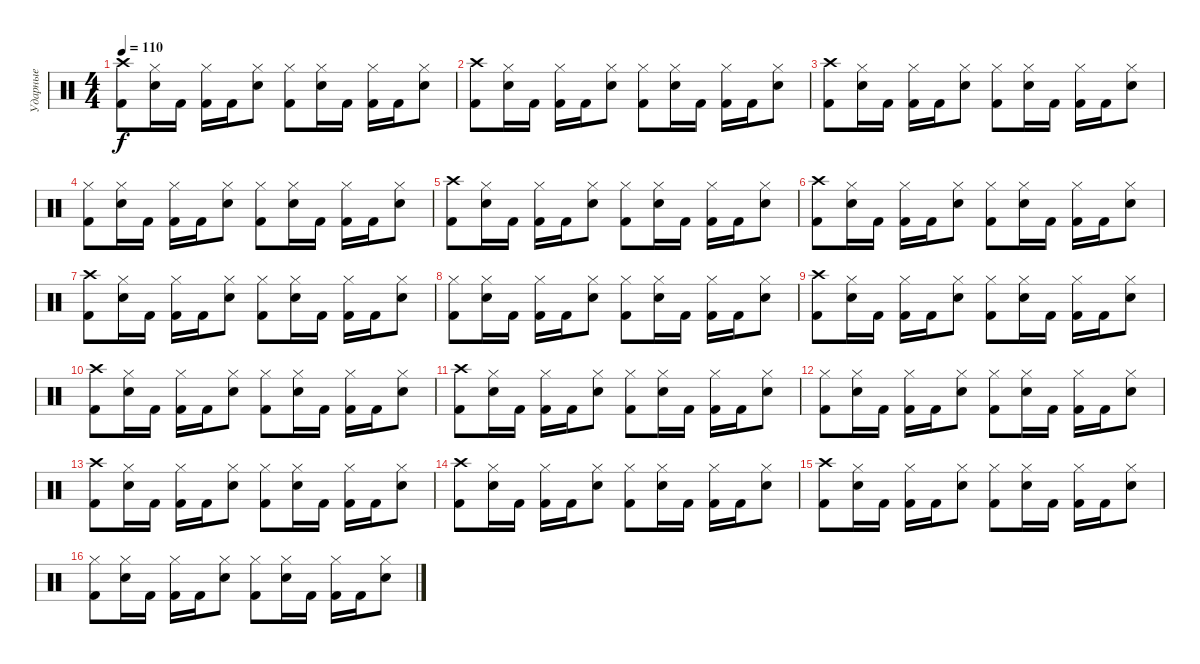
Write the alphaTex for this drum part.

\track ("Ударные" "Ударные") {instrument percussion}
\staff {score}
\articulation defaults
\ts (4 4)
\tempo 110
\clef neutral
\ks c
("Crash high (hit)" "Kick (hit) 2").8{dy f} ("Hi-Hat (closed)" "Electric Snare (hit)").16 "Kick (hit) 2".16 ("Hi-Hat (closed)" "Kick (hit) 2").16 "Kick (hit) 2".16 ("Hi-Hat (closed)" "Electric Snare (hit)").8 ("Hi-Hat (closed)" "Kick (hit) 2").8 ("Hi-Hat (closed)" "Electric Snare (hit)").16 "Kick (hit) 2".16 ("Hi-Hat (closed)" "Kick (hit) 2").16 "Kick (hit) 2".16 ("Hi-Hat (closed)" "Electric Snare (hit)").8 |
("Crash high (hit)" "Kick (hit) 2").8 ("Hi-Hat (closed)" "Electric Snare (hit)").16 "Kick (hit) 2".16 ("Hi-Hat (closed)" "Kick (hit) 2").16 "Kick (hit) 2".16 ("Hi-Hat (closed)" "Electric Snare (hit)").8 ("Hi-Hat (closed)" "Kick (hit) 2").8 ("Hi-Hat (closed)" "Electric Snare (hit)").16 "Kick (hit) 2".16 ("Hi-Hat (closed)" "Kick (hit) 2").16 "Kick (hit) 2".16 ("Hi-Hat (closed)" "Electric Snare (hit)").8 |
("Crash high (hit)" "Kick (hit) 2").8 ("Hi-Hat (closed)" "Electric Snare (hit)").16 "Kick (hit) 2".16 ("Hi-Hat (closed)" "Kick (hit) 2").16 "Kick (hit) 2".16 ("Hi-Hat (closed)" "Electric Snare (hit)").8 ("Hi-Hat (closed)" "Kick (hit) 2").8 ("Hi-Hat (closed)" "Electric Snare (hit)").16 "Kick (hit) 2".16 ("Hi-Hat (closed)" "Kick (hit) 2").16 "Kick (hit) 2".16 ("Hi-Hat (closed)" "Electric Snare (hit)").8 |
("Hi-Hat (closed)" "Kick (hit) 2").8 ("Hi-Hat (closed)" "Electric Snare (hit)").16 "Kick (hit) 2".16 ("Hi-Hat (closed)" "Kick (hit) 2").16 "Kick (hit) 2".16 ("Hi-Hat (closed)" "Electric Snare (hit)").8 ("Hi-Hat (closed)" "Kick (hit) 2").8 ("Hi-Hat (closed)" "Electric Snare (hit)").16 "Kick (hit) 2".16 ("Hi-Hat (closed)" "Kick (hit) 2").16 "Kick (hit) 2".16 ("Hi-Hat (closed)" "Electric Snare (hit)").8 |
("Crash high (hit)" "Kick (hit) 2").8 ("Hi-Hat (closed)" "Electric Snare (hit)").16 "Kick (hit) 2".16 ("Hi-Hat (closed)" "Kick (hit) 2").16 "Kick (hit) 2".16 ("Hi-Hat (closed)" "Electric Snare (hit)").8 ("Hi-Hat (closed)" "Kick (hit) 2").8 ("Hi-Hat (closed)" "Electric Snare (hit)").16 "Kick (hit) 2".16 ("Hi-Hat (closed)" "Kick (hit) 2").16 "Kick (hit) 2".16 ("Hi-Hat (closed)" "Electric Snare (hit)").8 |
("Crash high (hit)" "Kick (hit) 2").8 ("Hi-Hat (closed)" "Electric Snare (hit)").16 "Kick (hit) 2".16 ("Hi-Hat (closed)" "Kick (hit) 2").16 "Kick (hit) 2".16 ("Hi-Hat (closed)" "Electric Snare (hit)").8 ("Hi-Hat (closed)" "Kick (hit) 2").8 ("Hi-Hat (closed)" "Electric Snare (hit)").16 "Kick (hit) 2".16 ("Hi-Hat (closed)" "Kick (hit) 2").16 "Kick (hit) 2".16 ("Hi-Hat (closed)" "Electric Snare (hit)").8 |
("Crash high (hit)" "Kick (hit) 2").8 ("Hi-Hat (closed)" "Electric Snare (hit)").16 "Kick (hit) 2".16 ("Hi-Hat (closed)" "Kick (hit) 2").16 "Kick (hit) 2".16 ("Hi-Hat (closed)" "Electric Snare (hit)").8 ("Hi-Hat (closed)" "Kick (hit) 2").8 ("Hi-Hat (closed)" "Electric Snare (hit)").16 "Kick (hit) 2".16 ("Hi-Hat (closed)" "Kick (hit) 2").16 "Kick (hit) 2".16 ("Hi-Hat (closed)" "Electric Snare (hit)").8 |
("Hi-Hat (closed)" "Kick (hit) 2").8 ("Hi-Hat (closed)" "Electric Snare (hit)").16 "Kick (hit) 2".16 ("Hi-Hat (closed)" "Kick (hit) 2").16 "Kick (hit) 2".16 ("Hi-Hat (closed)" "Electric Snare (hit)").8 ("Hi-Hat (closed)" "Kick (hit) 2").8 ("Hi-Hat (closed)" "Electric Snare (hit)").16 "Kick (hit) 2".16 ("Hi-Hat (closed)" "Kick (hit) 2").16 "Kick (hit) 2".16 ("Hi-Hat (closed)" "Electric Snare (hit)").8 |
("Crash high (hit)" "Kick (hit) 2").8 ("Hi-Hat (closed)" "Electric Snare (hit)").16 "Kick (hit) 2".16 ("Hi-Hat (closed)" "Kick (hit) 2").16 "Kick (hit) 2".16 ("Hi-Hat (closed)" "Electric Snare (hit)").8 ("Hi-Hat (closed)" "Kick (hit) 2").8 ("Hi-Hat (closed)" "Electric Snare (hit)").16 "Kick (hit) 2".16 ("Hi-Hat (closed)" "Kick (hit) 2").16 "Kick (hit) 2".16 ("Hi-Hat (closed)" "Electric Snare (hit)").8 |
("Crash high (hit)" "Kick (hit) 2").8 ("Hi-Hat (closed)" "Electric Snare (hit)").16 "Kick (hit) 2".16 ("Hi-Hat (closed)" "Kick (hit) 2").16 "Kick (hit) 2".16 ("Hi-Hat (closed)" "Electric Snare (hit)").8 ("Hi-Hat (closed)" "Kick (hit) 2").8 ("Hi-Hat (closed)" "Electric Snare (hit)").16 "Kick (hit) 2".16 ("Hi-Hat (closed)" "Kick (hit) 2").16 "Kick (hit) 2".16 ("Hi-Hat (closed)" "Electric Snare (hit)").8 |
("Crash high (hit)" "Kick (hit) 2").8 ("Hi-Hat (closed)" "Electric Snare (hit)").16 "Kick (hit) 2".16 ("Hi-Hat (closed)" "Kick (hit) 2").16 "Kick (hit) 2".16 ("Hi-Hat (closed)" "Electric Snare (hit)").8 ("Hi-Hat (closed)" "Kick (hit) 2").8 ("Hi-Hat (closed)" "Electric Snare (hit)").16 "Kick (hit) 2".16 ("Hi-Hat (closed)" "Kick (hit) 2").16 "Kick (hit) 2".16 ("Hi-Hat (closed)" "Electric Snare (hit)").8 |
("Hi-Hat (closed)" "Kick (hit) 2").8 ("Hi-Hat (closed)" "Electric Snare (hit)").16 "Kick (hit) 2".16 ("Hi-Hat (closed)" "Kick (hit) 2").16 "Kick (hit) 2".16 ("Hi-Hat (closed)" "Electric Snare (hit)").8 ("Hi-Hat (closed)" "Kick (hit) 2").8 ("Hi-Hat (closed)" "Electric Snare (hit)").16 "Kick (hit) 2".16 ("Hi-Hat (closed)" "Kick (hit) 2").16 "Kick (hit) 2".16 ("Hi-Hat (closed)" "Electric Snare (hit)").8 |
("Crash high (hit)" "Kick (hit) 2").8 ("Hi-Hat (closed)" "Electric Snare (hit)").16 "Kick (hit) 2".16 ("Hi-Hat (closed)" "Kick (hit) 2").16 "Kick (hit) 2".16 ("Hi-Hat (closed)" "Electric Snare (hit)").8 ("Hi-Hat (closed)" "Kick (hit) 2").8 ("Hi-Hat (closed)" "Electric Snare (hit)").16 "Kick (hit) 2".16 ("Hi-Hat (closed)" "Kick (hit) 2").16 "Kick (hit) 2".16 ("Hi-Hat (closed)" "Electric Snare (hit)").8 |
("Crash high (hit)" "Kick (hit) 2").8 ("Hi-Hat (closed)" "Electric Snare (hit)").16 "Kick (hit) 2".16 ("Hi-Hat (closed)" "Kick (hit) 2").16 "Kick (hit) 2".16 ("Hi-Hat (closed)" "Electric Snare (hit)").8 ("Hi-Hat (closed)" "Kick (hit) 2").8 ("Hi-Hat (closed)" "Electric Snare (hit)").16 "Kick (hit) 2".16 ("Hi-Hat (closed)" "Kick (hit) 2").16 "Kick (hit) 2".16 ("Hi-Hat (closed)" "Electric Snare (hit)").8 |
("Crash high (hit)" "Kick (hit) 2").8 ("Hi-Hat (closed)" "Electric Snare (hit)").16 "Kick (hit) 2".16 ("Hi-Hat (closed)" "Kick (hit) 2").16 "Kick (hit) 2".16 ("Hi-Hat (closed)" "Electric Snare (hit)").8 ("Hi-Hat (closed)" "Kick (hit) 2").8 ("Hi-Hat (closed)" "Electric Snare (hit)").16 "Kick (hit) 2".16 ("Hi-Hat (closed)" "Kick (hit) 2").16 "Kick (hit) 2".16 ("Hi-Hat (closed)" "Electric Snare (hit)").8 |
("Hi-Hat (closed)" "Kick (hit) 2").8 ("Hi-Hat (closed)" "Electric Snare (hit)").16 "Kick (hit) 2".16 ("Hi-Hat (closed)" "Kick (hit) 2").16 "Kick (hit) 2".16 ("Hi-Hat (closed)" "Electric Snare (hit)").8 ("Hi-Hat (closed)" "Kick (hit) 2").8 ("Hi-Hat (closed)" "Electric Snare (hit)").16 "Kick (hit) 2".16 ("Hi-Hat (closed)" "Kick (hit) 2").16 "Kick (hit) 2".16 ("Hi-Hat (closed)" "Electric Snare (hit)").8
